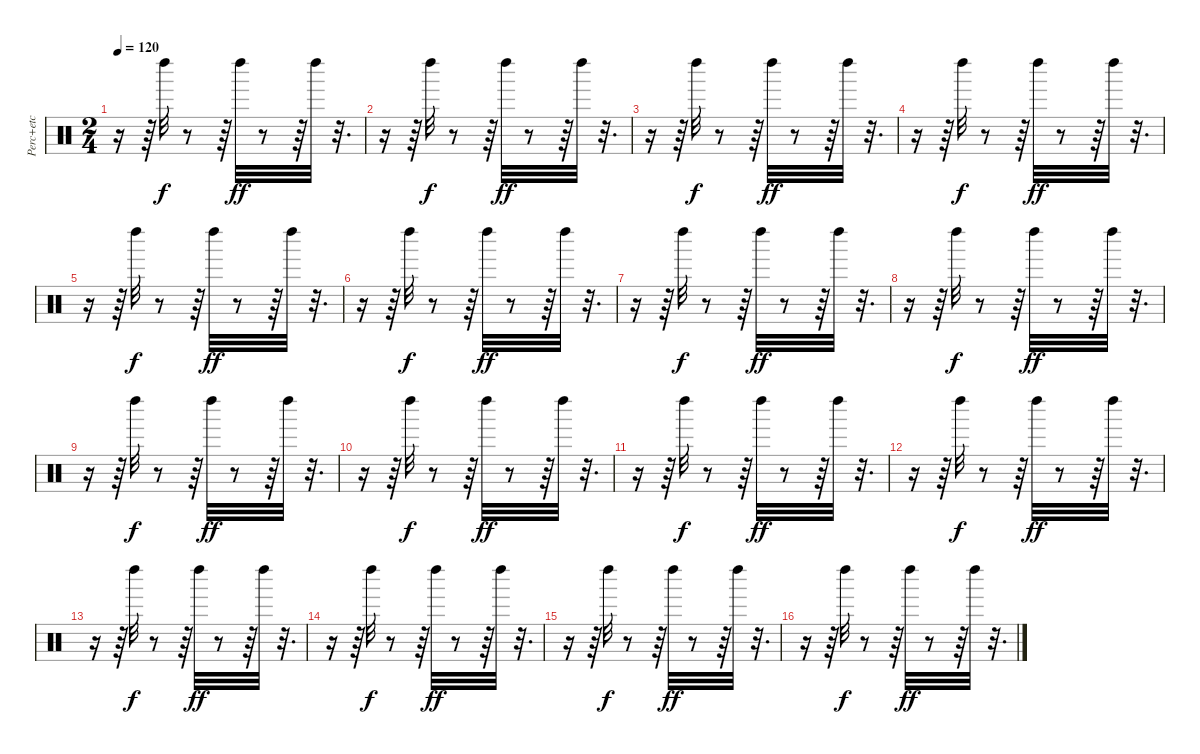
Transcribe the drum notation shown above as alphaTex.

\track ("Perc+etc" "Perc+etc") {instrument percussion}
\staff {score}
\articulation defaults
\ts (2 4)
\tempo 120
\clef neutral
\ks c
r.16{dy f} r.64 "Left Maraca (hit)".32 r.8 r.64 "Left Maraca (hit)".32{dy ff} r.8 r.64 "Left Maraca (hit)".32 r.32{d} |
r.16 r.64 "Left Maraca (hit)".32{dy f} r.8 r.64 "Left Maraca (hit)".32{dy ff} r.8 r.64 "Left Maraca (hit)".32 r.32{d} |
r.16 r.64 "Left Maraca (hit)".32{dy f} r.8 r.64 "Left Maraca (hit)".32{dy ff} r.8 r.64 "Left Maraca (hit)".32 r.32{d} |
r.16 r.64 "Left Maraca (hit)".32{dy f} r.8 r.64 "Left Maraca (hit)".32{dy ff} r.8 r.64 "Left Maraca (hit)".32 r.32{d} |
r.16 r.64 "Left Maraca (hit)".32{dy f} r.8 r.64 "Left Maraca (hit)".32{dy ff} r.8 r.64 "Left Maraca (hit)".32 r.32{d} |
r.16 r.64 "Left Maraca (hit)".32{dy f} r.8 r.64 "Left Maraca (hit)".32{dy ff} r.8 r.64 "Left Maraca (hit)".32 r.32{d} |
r.16 r.64 "Left Maraca (hit)".32{dy f} r.8 r.64 "Left Maraca (hit)".32{dy ff} r.8 r.64 "Left Maraca (hit)".32 r.32{d} |
r.16 r.64 "Left Maraca (hit)".32{dy f} r.8 r.64 "Left Maraca (hit)".32{dy ff} r.8 r.64 "Left Maraca (hit)".32 r.32{d} |
r.16 r.64 "Left Maraca (hit)".32{dy f} r.8 r.64 "Left Maraca (hit)".32{dy ff} r.8 r.64 "Left Maraca (hit)".32 r.32{d} |
r.16 r.64 "Left Maraca (hit)".32{dy f} r.8 r.64 "Left Maraca (hit)".32{dy ff} r.8 r.64 "Left Maraca (hit)".32 r.32{d} |
r.16 r.64 "Left Maraca (hit)".32{dy f} r.8 r.64 "Left Maraca (hit)".32{dy ff} r.8 r.64 "Left Maraca (hit)".32 r.32{d} |
r.16 r.64 "Left Maraca (hit)".32{dy f} r.8 r.64 "Left Maraca (hit)".32{dy ff} r.8 r.64 "Left Maraca (hit)".32 r.32{d} |
r.16 r.64 "Left Maraca (hit)".32{dy f} r.8 r.64 "Left Maraca (hit)".32{dy ff} r.8 r.64 "Left Maraca (hit)".32 r.32{d} |
r.16 r.64 "Left Maraca (hit)".32{dy f} r.8 r.64 "Left Maraca (hit)".32{dy ff} r.8 r.64 "Left Maraca (hit)".32 r.32{d} |
r.16 r.64 "Left Maraca (hit)".32{dy f} r.8 r.64 "Left Maraca (hit)".32{dy ff} r.8 r.64 "Left Maraca (hit)".32 r.32{d} |
r.16 r.64 "Left Maraca (hit)".32{dy f} r.8 r.64 "Left Maraca (hit)".32{dy ff} r.8 r.64 "Left Maraca (hit)".32 r.32{d}
